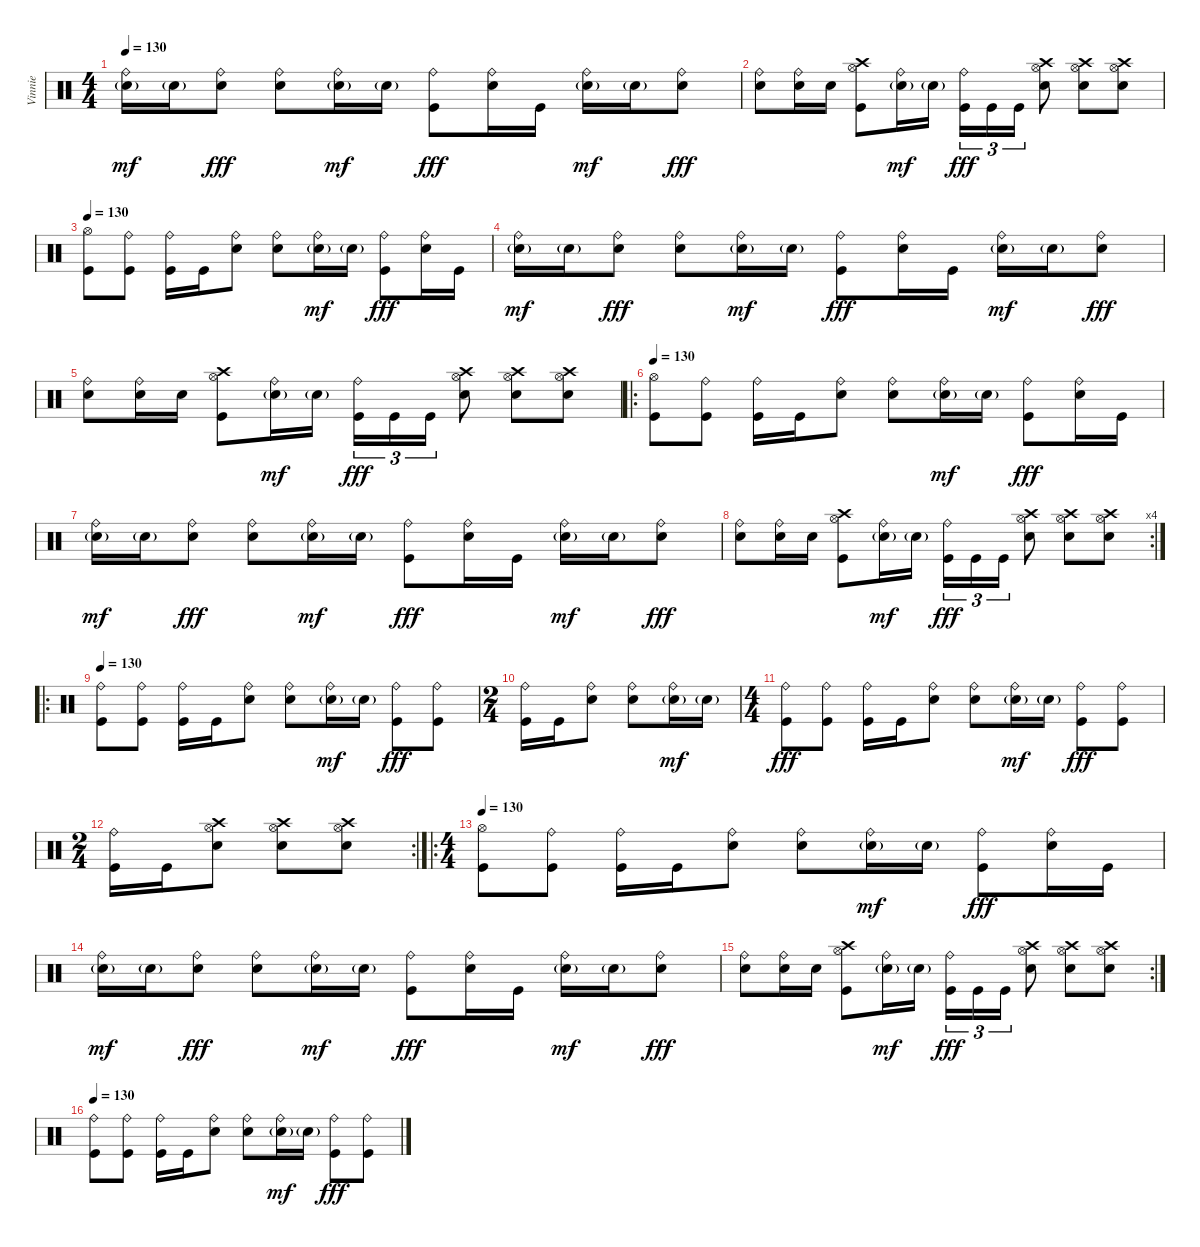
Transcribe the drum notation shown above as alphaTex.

\track ("Vinnie" "Vinnie") {instrument percussion}
\staff {score}
\articulation defaults
\ts (4 4)
\tempo 130
\clef neutral
\ks c
("Electric Snare (hit)"{g} "Ride (bell)").16{dy mf} "Electric Snare (hit)"{g}.16 ("Electric Snare (hit)" "Ride (bell)").8{dy fff} ("Electric Snare (hit)" "Ride (bell)").8 ("Electric Snare (hit)"{g} "Ride (bell)").16{dy mf} "Electric Snare (hit)"{g}.16 ("Kick (hit)" "Ride (bell)").8{dy fff} ("Electric Snare (hit)" "Ride (bell)").16 "Kick (hit)".16 ("Electric Snare (hit)"{g} "Ride (bell)").16{dy mf} "Electric Snare (hit)"{g}.16 ("Electric Snare (hit)" "Ride (bell)").8{dy fff} |
("Electric Snare (hit)" "Ride (bell)").8 ("Electric Snare (hit)" "Ride (bell)").16 "Electric Snare (hit)".16 ("Kick (hit)" "Crash high (hit)" "Hi-Hat (open)").8 ("Electric Snare (hit)"{g} "Ride (bell)").16{dy mf} "Electric Snare (hit)"{g}.16 ("Kick (hit)" "Ride (bell)").16{tu (3 2) dy fff} "Kick (hit)".16{tu (3 2)} "Kick (hit)".16{tu (3 2)} ("Electric Snare (hit)" "Crash high (hit)" "Hi-Hat (open)").8 ("Electric Snare (hit)" "Crash high (hit)" "Hi-Hat (open)").8 ("Electric Snare (hit)" "Crash high (hit)" "Hi-Hat (open)").8 |
\tempo 130
("Kick (hit)" "Hi-Hat (open)").8 ("Kick (hit)" "Ride (bell)").8 ("Kick (hit)" "Ride (bell)").16 "Kick (hit)".16 ("Electric Snare (hit)" "Ride (bell)").8 ("Electric Snare (hit)" "Ride (bell)").8 ("Electric Snare (hit)"{g} "Ride (bell)").16{dy mf} "Electric Snare (hit)"{g}.16 ("Kick (hit)" "Ride (bell)").8{dy fff} ("Electric Snare (hit)" "Ride (bell)").16 "Kick (hit)".16 |
("Electric Snare (hit)"{g} "Ride (bell)").16{dy mf} "Electric Snare (hit)"{g}.16 ("Electric Snare (hit)" "Ride (bell)").8{dy fff} ("Electric Snare (hit)" "Ride (bell)").8 ("Electric Snare (hit)"{g} "Ride (bell)").16{dy mf} "Electric Snare (hit)"{g}.16 ("Kick (hit)" "Ride (bell)").8{dy fff} ("Electric Snare (hit)" "Ride (bell)").16 "Kick (hit)".16 ("Electric Snare (hit)"{g} "Ride (bell)").16{dy mf} "Electric Snare (hit)"{g}.16 ("Electric Snare (hit)" "Ride (bell)").8{dy fff} |
("Electric Snare (hit)" "Ride (bell)").8 ("Electric Snare (hit)" "Ride (bell)").16 "Electric Snare (hit)".16 ("Kick (hit)" "Crash high (hit)" "Hi-Hat (open)").8 ("Electric Snare (hit)"{g} "Ride (bell)").16{dy mf} "Electric Snare (hit)"{g}.16 ("Kick (hit)" "Ride (bell)").16{tu (3 2) dy fff} "Kick (hit)".16{tu (3 2)} "Kick (hit)".16{tu (3 2)} ("Electric Snare (hit)" "Crash high (hit)" "Hi-Hat (open)").8 ("Electric Snare (hit)" "Crash high (hit)" "Hi-Hat (open)").8 ("Electric Snare (hit)" "Crash high (hit)" "Hi-Hat (open)").8 |
\ro
\tempo 130
("Kick (hit)" "Hi-Hat (open)").8 ("Kick (hit)" "Ride (bell)").8 ("Kick (hit)" "Ride (bell)").16 "Kick (hit)".16 ("Electric Snare (hit)" "Ride (bell)").8 ("Electric Snare (hit)" "Ride (bell)").8 ("Electric Snare (hit)"{g} "Ride (bell)").16{dy mf} "Electric Snare (hit)"{g}.16 ("Kick (hit)" "Ride (bell)").8{dy fff} ("Electric Snare (hit)" "Ride (bell)").16 "Kick (hit)".16 |
("Electric Snare (hit)"{g} "Ride (bell)").16{dy mf} "Electric Snare (hit)"{g}.16 ("Electric Snare (hit)" "Ride (bell)").8{dy fff} ("Electric Snare (hit)" "Ride (bell)").8 ("Electric Snare (hit)"{g} "Ride (bell)").16{dy mf} "Electric Snare (hit)"{g}.16 ("Kick (hit)" "Ride (bell)").8{dy fff} ("Electric Snare (hit)" "Ride (bell)").16 "Kick (hit)".16 ("Electric Snare (hit)"{g} "Ride (bell)").16{dy mf} "Electric Snare (hit)"{g}.16 ("Electric Snare (hit)" "Ride (bell)").8{dy fff} |
\rc 4
("Electric Snare (hit)" "Ride (bell)").8 ("Electric Snare (hit)" "Ride (bell)").16 "Electric Snare (hit)".16 ("Kick (hit)" "Crash high (hit)" "Hi-Hat (open)").8 ("Electric Snare (hit)"{g} "Ride (bell)").16{dy mf} "Electric Snare (hit)"{g}.16 ("Kick (hit)" "Ride (bell)").16{tu (3 2) dy fff} "Kick (hit)".16{tu (3 2)} "Kick (hit)".16{tu (3 2)} ("Electric Snare (hit)" "Crash high (hit)" "Hi-Hat (open)").8 ("Electric Snare (hit)" "Crash high (hit)" "Hi-Hat (open)").8 ("Electric Snare (hit)" "Crash high (hit)" "Hi-Hat (open)").8 |
\ro
\tempo 130
("Kick (hit)" "Ride (bell)").8 ("Kick (hit)" "Ride (bell)").8 ("Kick (hit)" "Ride (bell)").16 "Kick (hit)".16 ("Electric Snare (hit)" "Ride (bell)").8 ("Electric Snare (hit)" "Ride (bell)").8 ("Electric Snare (hit)"{g} "Ride (bell)").16{dy mf} "Electric Snare (hit)"{g}.16 ("Kick (hit)" "Ride (bell)").8{dy fff} ("Kick (hit)" "Ride (bell)").8 |
\ts (2 4)
("Kick (hit)" "Ride (bell)").16 "Kick (hit)".16 ("Electric Snare (hit)" "Ride (bell)").8 ("Electric Snare (hit)" "Ride (bell)").8 ("Electric Snare (hit)"{g} "Ride (bell)").16{dy mf} "Electric Snare (hit)"{g}.16 |
\ts (4 4)
("Kick (hit)" "Ride (bell)").8{dy fff} ("Kick (hit)" "Ride (bell)").8 ("Kick (hit)" "Ride (bell)").16 "Kick (hit)".16 ("Electric Snare (hit)" "Ride (bell)").8 ("Electric Snare (hit)" "Ride (bell)").8 ("Electric Snare (hit)"{g} "Ride (bell)").16{dy mf} "Electric Snare (hit)"{g}.16 ("Kick (hit)" "Ride (bell)").8{dy fff} ("Kick (hit)" "Ride (bell)").8 |
\rc 2
\ts (2 4)
("Kick (hit)" "Ride (bell)").16 "Kick (hit)".16 ("Electric Snare (hit)" "Crash high (hit)" "Hi-Hat (open)").8 ("Electric Snare (hit)" "Crash high (hit)" "Hi-Hat (open)").8 ("Electric Snare (hit)" "Crash high (hit)" "Hi-Hat (open)").8 |
\ro
\ts (4 4)
\tempo 130
("Kick (hit)" "Hi-Hat (open)").8 ("Kick (hit)" "Ride (bell)").8 ("Kick (hit)" "Ride (bell)").16 "Kick (hit)".16 ("Electric Snare (hit)" "Ride (bell)").8 ("Electric Snare (hit)" "Ride (bell)").8 ("Electric Snare (hit)"{g} "Ride (bell)").16{dy mf} "Electric Snare (hit)"{g}.16 ("Kick (hit)" "Ride (bell)").8{dy fff} ("Electric Snare (hit)" "Ride (bell)").16 "Kick (hit)".16 |
("Electric Snare (hit)"{g} "Ride (bell)").16{dy mf} "Electric Snare (hit)"{g}.16 ("Electric Snare (hit)" "Ride (bell)").8{dy fff} ("Electric Snare (hit)" "Ride (bell)").8 ("Electric Snare (hit)"{g} "Ride (bell)").16{dy mf} "Electric Snare (hit)"{g}.16 ("Kick (hit)" "Ride (bell)").8{dy fff} ("Electric Snare (hit)" "Ride (bell)").16 "Kick (hit)".16 ("Electric Snare (hit)"{g} "Ride (bell)").16{dy mf} "Electric Snare (hit)"{g}.16 ("Electric Snare (hit)" "Ride (bell)").8{dy fff} |
\rc 2
("Electric Snare (hit)" "Ride (bell)").8 ("Electric Snare (hit)" "Ride (bell)").16 "Electric Snare (hit)".16 ("Kick (hit)" "Crash high (hit)" "Hi-Hat (open)").8 ("Electric Snare (hit)"{g} "Ride (bell)").16{dy mf} "Electric Snare (hit)"{g}.16 ("Kick (hit)" "Ride (bell)").16{tu (3 2) dy fff} "Kick (hit)".16{tu (3 2)} "Kick (hit)".16{tu (3 2)} ("Electric Snare (hit)" "Crash high (hit)" "Hi-Hat (open)").8 ("Electric Snare (hit)" "Crash high (hit)" "Hi-Hat (open)").8 ("Electric Snare (hit)" "Crash high (hit)" "Hi-Hat (open)").8 |
\tempo 130
("Kick (hit)" "Ride (bell)").8 ("Kick (hit)" "Ride (bell)").8 ("Kick (hit)" "Ride (bell)").16 "Kick (hit)".16 ("Electric Snare (hit)" "Ride (bell)").8 ("Electric Snare (hit)" "Ride (bell)").8 ("Electric Snare (hit)"{g} "Ride (bell)").16{dy mf} "Electric Snare (hit)"{g}.16 ("Kick (hit)" "Ride (bell)").8{dy fff} ("Kick (hit)" "Ride (bell)").8
